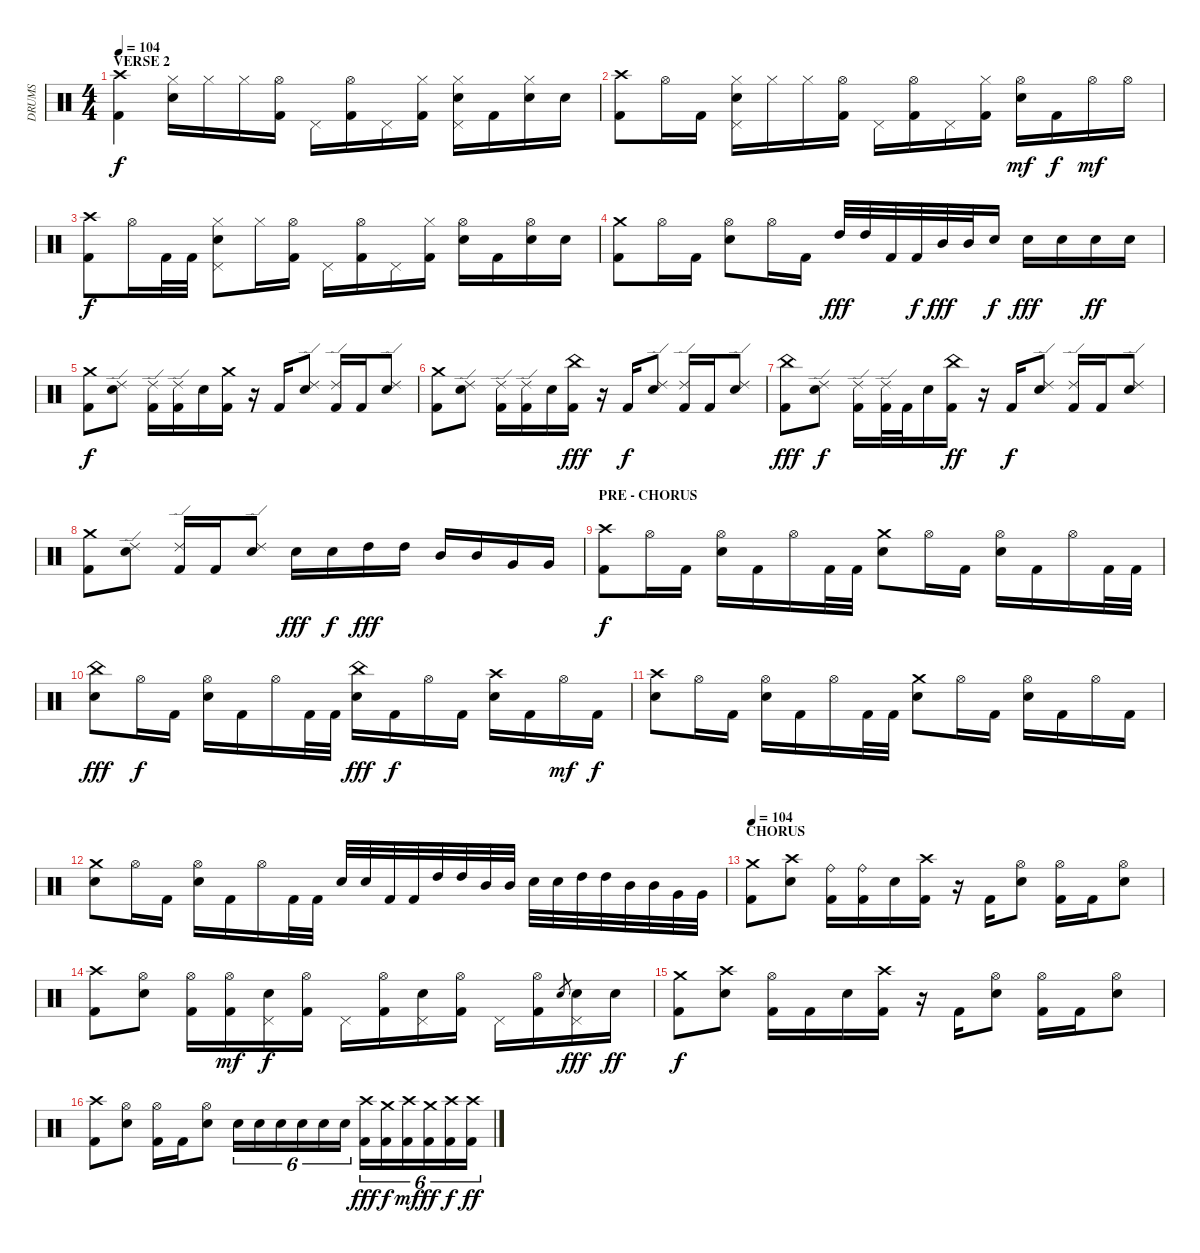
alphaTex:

\track ("DRUMS" "DRUMS") {instrument percussion}
\staff {score}
\articulation defaults
\ts (4 4)
\section ("" "VERSE 2")
\tempo 104
\clef neutral
\ks c
("Crash high (hit)" "Kick (hit) 2").4{dy f} ("Hi-Hat (closed)" "Electric Snare (hit)").16 "Hi-Hat (closed)".16 "Hi-Hat (closed)".16 ("Hi-Hat (open)" "Kick (hit) 2").16 "Pedal Hi-Hat (hit)".16 ("Hi-Hat (open)" "Kick (hit) 2").16 "Pedal Hi-Hat (hit)".16 ("Hi-Hat (closed)" "Kick (hit) 2").16 ("Hi-Hat (closed)" "Electric Snare (hit)" "Pedal Hi-Hat (hit)").16 "Kick (hit) 2".16 ("Hi-Hat (closed)" "Electric Snare (hit)").16 "Electric Snare (hit)".16 |
("Crash high (hit)" "Kick (hit) 2").8 "Hi-Hat (open)".16 "Kick (hit) 2".16 ("Hi-Hat (closed)" "Electric Snare (hit)" "Pedal Hi-Hat (hit)").16 "Hi-Hat (closed)".16 "Hi-Hat (closed)".16 ("Hi-Hat (open)" "Kick (hit) 2").16 "Pedal Hi-Hat (hit)".16 ("Hi-Hat (open)" "Kick (hit) 2").16 "Pedal Hi-Hat (hit)".16 ("Hi-Hat (closed)" "Kick (hit) 2").16 ("Hi-Hat (open)" "Electric Snare (hit)").16{dy mf} "Kick (hit) 2".16{dy f} "Hi-Hat (open)".16{dy mf} "Hi-Hat (open)".16 |
("Crash high (hit)" "Kick (hit) 2").8{dy f} "Hi-Hat (open)".16 "Kick (hit) 2".32 "Kick (hit) 2".32 ("Hi-Hat (closed)" "Electric Snare (hit)" "Pedal Hi-Hat (hit)").8 "Hi-Hat (closed)".16 ("Hi-Hat (open)" "Kick (hit) 2").16 "Pedal Hi-Hat (hit)".16 ("Hi-Hat (open)" "Kick (hit) 2").16 "Pedal Hi-Hat (hit)".16 ("Hi-Hat (closed)" "Kick (hit) 2").16 ("Hi-Hat (open)" "Electric Snare (hit)").16 "Kick (hit) 2".16 ("Hi-Hat (open)" "Electric Snare (hit)").16 "Electric Snare (hit)".16 |
("Crash medium (hit)" "Kick (hit) 2").8 "Hi-Hat (open)".16 "Kick (hit) 2".16 ("Hi-Hat (open)" "Electric Snare (hit)").8 "Hi-Hat (open)".16 "Kick (hit) 2".16 "High Tom (hit)".32{dy fff} "High Tom (hit)".32 "Kick (hit) 2".32 "Kick (hit) 2".32{dy f} "Mid Tom (hit)".32{dy fff} "Mid Tom (hit)".32 "Electric Snare (hit)".16{dy f} "Electric Snare (hit)".16{dy fff} "Electric Snare (hit)".16 "Electric Snare (hit)".16{dy ff} "Electric Snare (hit)".16 |
("Crash medium (hit)" "Kick (hit) 2").8{dy f} ("Ride (edge) 2" "Electric Snare (hit)").8 ("Ride (edge) 2" "Kick (hit) 2").16 ("Ride (edge) 2" "Kick (hit) 2").16 "Electric Snare (hit)".16 ("Crash medium (hit)" "Kick (hit) 2").16 r.16 "Kick (hit) 2".16 ("Ride (edge) 2" "Electric Snare (hit)").8 ("Ride (edge) 2" "Kick (hit) 2").16 "Kick (hit) 2".16 ("Ride (edge) 2" "Electric Snare (hit)").8 |
("Crash medium (hit)" "Kick (hit) 2").8 ("Ride (edge) 2" "Electric Snare (hit)").8 ("Ride (edge) 2" "Kick (hit) 2").16 ("Ride (edge) 2" "Kick (hit) 2").16 "Electric Snare (hit)".16 ("China (hit)" "Kick (hit) 2").16{dy fff} r.16 "Kick (hit) 2".16{dy f} ("Ride (edge) 2" "Electric Snare (hit)").8 ("Ride (edge) 2" "Kick (hit) 2").16 "Kick (hit) 2".16 ("Ride (edge) 2" "Electric Snare (hit)").8 |
("China (hit)" "Kick (hit) 2").8{dy fff} ("Ride (edge) 2" "Electric Snare (hit)").8{dy f} ("Ride (edge) 2" "Kick (hit) 2").16 ("Ride (edge) 2" "Kick (hit) 2").32 "Kick (hit) 2".32 "Electric Snare (hit)".16 ("China (hit)" "Kick (hit) 2").16{dy ff} r.16 "Kick (hit) 2".16{dy f} ("Ride (edge) 2" "Electric Snare (hit)").8 ("Ride (edge) 2" "Kick (hit) 2").16 "Kick (hit) 2".16 ("Ride (edge) 2" "Electric Snare (hit)").8 |
("Crash medium (hit)" "Kick (hit) 2").8 ("Ride (edge) 2" "Electric Snare (hit)").8 ("Ride (edge) 2" "Kick (hit) 2").16 "Kick (hit) 2".16 ("Ride (edge) 2" "Electric Snare (hit)").8 "Electric Snare (hit)".16{dy fff} "Electric Snare (hit)".16{dy f} "High Tom (hit)".16{dy fff} "High Tom (hit)".16 "Mid Tom (hit)".16 "Mid Tom (hit)".16 "Very Low Tom (hit)".16 "Very Low Tom (hit)".16 |
\section ("" "PRE - CHORUS")
("Crash high (hit)" "Kick (hit) 2").8{dy f} "Hi-Hat (open)".16 "Kick (hit) 2".16 ("Hi-Hat (open)" "Electric Snare (hit)").16 "Kick (hit) 2".16 "Hi-Hat (open)".16 "Kick (hit) 2".32 "Kick (hit) 2".32 ("Crash medium (hit)" "Electric Snare (hit)").8 "Hi-Hat (open)".16 "Kick (hit) 2".16 ("Hi-Hat (open)" "Electric Snare (hit)").16 "Kick (hit) 2".16 "Hi-Hat (open)".16 "Kick (hit) 2".32 "Kick (hit) 2".32 |
("China (hit)" "Electric Snare (hit)").8{dy fff} "Hi-Hat (open)".16{dy f} "Kick (hit) 2".16 ("Hi-Hat (open)" "Electric Snare (hit)").16 "Kick (hit) 2".16 "Hi-Hat (open)".16 "Kick (hit) 2".32 "Kick (hit) 2".32 ("China (hit)" "Electric Snare (hit)").16{dy fff} "Kick (hit) 2".16{dy f} "Hi-Hat (open)".16 "Kick (hit) 2".16 ("Crash high (hit)" "Electric Snare (hit)").16 "Kick (hit) 2".16 "Hi-Hat (open)".16{dy mf} "Kick (hit) 2".16{dy f} |
("Crash high (hit)" "Electric Snare (hit)").8 "Hi-Hat (open)".16 "Kick (hit) 2".16 ("Hi-Hat (open)" "Electric Snare (hit)").16 "Kick (hit) 2".16 "Hi-Hat (open)".16 "Kick (hit) 2".32 "Kick (hit) 2".32 ("Crash medium (hit)" "Electric Snare (hit)").8 "Hi-Hat (open)".16 "Kick (hit) 2".16 ("Hi-Hat (open)" "Electric Snare (hit)").16 "Kick (hit) 2".16 "Hi-Hat (open)".16 "Kick (hit) 2".16 |
("Crash medium (hit)" "Electric Snare (hit)").8 "Hi-Hat (open)".16 "Kick (hit) 2".16 ("Hi-Hat (open)" "Electric Snare (hit)").16 "Kick (hit) 2".16 "Hi-Hat (open)".16 "Kick (hit) 2".32 "Kick (hit) 2".32 "Electric Snare (hit)".32 "Electric Snare (hit)".32 "Kick (hit) 2".32 "Kick (hit) 2".32 "High Tom (hit)".32 "High Tom (hit)".32 "Mid Tom (hit)".32 "Mid Tom (hit)".32 "Electric Snare (hit)".32 "Electric Snare (hit)".32 "High Tom (hit)".32 "High Tom (hit)".32 "Mid Tom (hit)".32 "Mid Tom (hit)".32 "Very Low Tom (hit)".32 "Very Low Tom (hit)".32 |
\section ("" "CHORUS")
\tempo 104
("Crash medium (hit)" "Kick (hit) 2").8 ("Crash high (hit)" "Electric Snare (hit)").8 ("Ride (bell)" "Kick (hit) 2").16 ("Ride (bell)" "Kick (hit) 2").16 "Electric Snare (hit)".16 ("Crash high (hit)" "Kick (hit) 2").16 r.16 "Kick (hit) 2".16 ("Hi-Hat (open)" "Electric Snare (hit)").8 ("Hi-Hat (open)" "Kick (hit) 2").16 "Kick (hit) 2".16 ("Hi-Hat (open)" "Electric Snare (hit)").8 |
("Crash high (hit)" "Kick (hit) 2").8 ("Hi-Hat (open)" "Electric Snare (hit)").8 ("Hi-Hat (open)" "Kick (hit) 2").16 ("Hi-Hat (open)" "Kick (hit) 2").16{dy mf} ("Electric Snare (hit)" "Pedal Hi-Hat (hit)").16{dy f} ("Hi-Hat (open)" "Kick (hit) 2").16 "Pedal Hi-Hat (hit)".16 ("Hi-Hat (open)" "Kick (hit) 2").16 ("Electric Snare (hit)" "Pedal Hi-Hat (hit)").16 ("Hi-Hat (open)" "Kick (hit) 2").16 "Pedal Hi-Hat (hit)".16 ("Hi-Hat (open)" "Kick (hit) 2").16 "Electric Snare (hit)"{sl}.8{gr} ("Electric Snare (hit)" "Pedal Hi-Hat (hit)").16{dy fff} "Electric Snare (hit)".16{dy ff} |
("Crash medium (hit)" "Kick (hit) 2").8{dy f} ("Crash high (hit)" "Electric Snare (hit)").8 ("Hi-Hat (open)" "Kick (hit) 2").16 "Kick (hit) 2".16 "Electric Snare (hit)".16 ("Crash high (hit)" "Kick (hit) 2").16 r.16 "Kick (hit) 2".16 ("Hi-Hat (open)" "Electric Snare (hit)").8 ("Hi-Hat (open)" "Kick (hit) 2").16 "Kick (hit) 2".16 ("Hi-Hat (open)" "Electric Snare (hit)").8 |
("Crash high (hit)" "Kick (hit) 2").8 ("Hi-Hat (open)" "Electric Snare (hit)").8 ("Hi-Hat (open)" "Kick (hit) 2").16 "Kick (hit) 2".16 ("Hi-Hat (open)" "Electric Snare (hit)").8 "Electric Snare (hit)".16{tu (6 4)} "Electric Snare (hit)".16{tu (6 4)} "Electric Snare (hit)".16{tu (6 4)} "Electric Snare (hit)".16{tu (6 4)} "Electric Snare (hit)".16{tu (6 4)} "Electric Snare (hit)".16{tu (6 4)} ("Crash high (hit)" "Kick (hit) 2").16{tu (6 4) dy fff} ("Crash medium (hit)" "Kick (hit) 2").16{tu (6 4) dy f} ("Crash high (hit)" "Kick (hit) 2").16{tu (6 4) dy mf} ("Crash medium (hit)" "Kick (hit) 2").16{tu (6 4) dy ff} ("Crash high (hit)" "Kick (hit) 2").16{tu (6 4) dy f} ("Crash high (hit)" "Kick (hit) 2").16{tu (6 4) dy ff}
